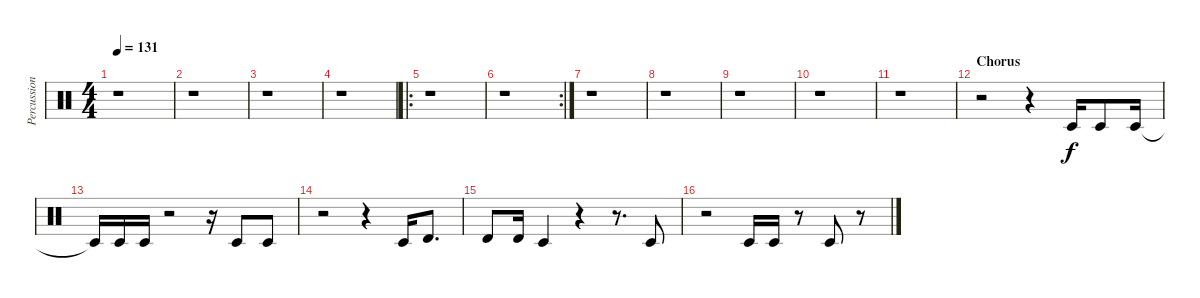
\track ("Percussion" "Percussion") {instrument percussion}
\staff {score}
\articulation defaults
\ts (4 4)
\tempo 131
\clef neutral
\ks c
r.1{dy f} |
r.1 |
r.1 |
r.1 |
\ro
r.1 |
\rc 2
r.1 |
r.1 |
r.1 |
r.1 |
r.1 |
r.1 |
\section ("" "Chorus")
r.2 r.4 "Timbale low (hit)".16 "Timbale low (hit)".8 "Timbale low (hit)".16 |
"Timbale low (hit)"{t}.16 "Timbale low (hit)".16 "Timbale low (hit)".16 r.2 r.16 "Timbale low (hit)".8 "Timbale low (hit)".8 |
r.2 r.4 "Timbale low (hit)".16 "Timbale high (hit)".8{d} |
"Timbale high (hit)".8 "Timbale high (hit)".16 "Timbale low (hit)".4 r.4 r.8{d} "Timbale low (hit)".8 |
r.2 "Timbale low (hit)".16 "Timbale low (hit)".16 r.8 "Timbale low (hit)".8 r.8
